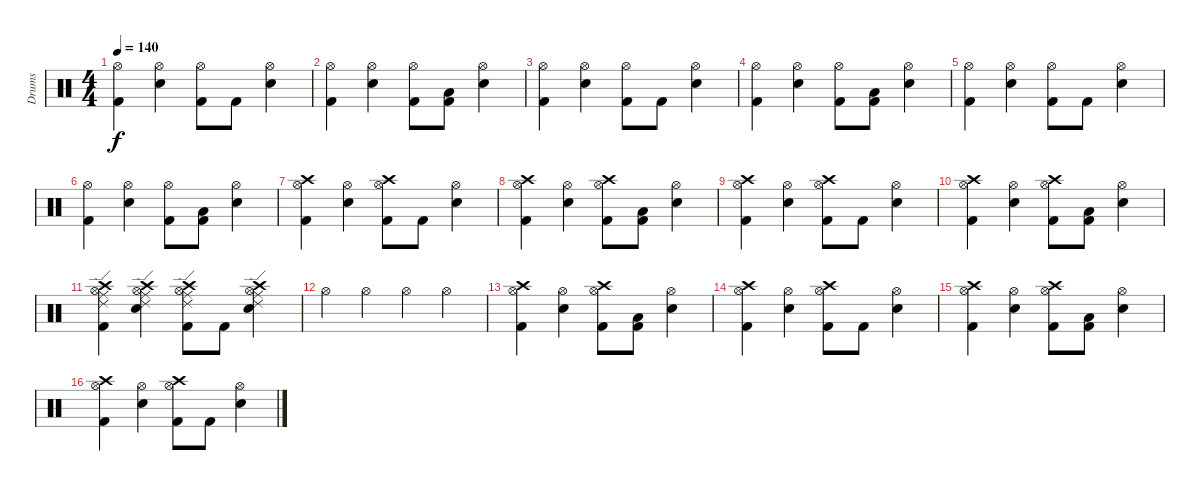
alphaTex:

\track ("Drums" "Drums") {instrument percussion}
\staff {score}
\articulation defaults
\ts (4 4)
\tempo 140
\clef neutral
\ks c
("Hi-Hat (open)" "Kick (hit) 2").4{dy f} ("Hi-Hat (open)" "Electric Snare (hit)").4 ("Hi-Hat (open)" "Kick (hit) 2").8 "Kick (hit) 2".8 ("Hi-Hat (open)" "Electric Snare (hit)").4 |
("Hi-Hat (open)" "Kick (hit) 2").4 ("Hi-Hat (open)" "Electric Snare (hit)").4 ("Hi-Hat (open)" "Kick (hit) 2").8 ("Low Tom (hit)" "Kick (hit) 2").8 ("Hi-Hat (open)" "Electric Snare (hit)").4 |
("Hi-Hat (open)" "Kick (hit) 2").4 ("Hi-Hat (open)" "Electric Snare (hit)").4 ("Hi-Hat (open)" "Kick (hit) 2").8 "Kick (hit) 2".8 ("Hi-Hat (open)" "Electric Snare (hit)").4 |
("Hi-Hat (open)" "Kick (hit) 2").4 ("Hi-Hat (open)" "Electric Snare (hit)").4 ("Hi-Hat (open)" "Kick (hit) 2").8 ("Low Tom (hit)" "Kick (hit) 2").8 ("Hi-Hat (open)" "Electric Snare (hit)").4 |
("Hi-Hat (open)" "Kick (hit) 2").4 ("Hi-Hat (open)" "Electric Snare (hit)").4 ("Hi-Hat (open)" "Kick (hit) 2").8 "Kick (hit) 2".8 ("Hi-Hat (open)" "Electric Snare (hit)").4 |
("Hi-Hat (open)" "Kick (hit) 2").4 ("Hi-Hat (open)" "Electric Snare (hit)").4 ("Hi-Hat (open)" "Kick (hit) 2").8 ("Low Tom (hit)" "Kick (hit) 2").8 ("Hi-Hat (open)" "Electric Snare (hit)").4 |
("Hi-Hat (open)" "Crash high (hit)" "Kick (hit) 2").4 ("Hi-Hat (open)" "Electric Snare (hit)").4 ("Hi-Hat (open)" "Crash high (hit)" "Kick (hit) 2").8 "Kick (hit) 2".8 ("Hi-Hat (open)" "Electric Snare (hit)").4 |
("Hi-Hat (open)" "Crash high (hit)" "Kick (hit) 2").4 ("Hi-Hat (open)" "Electric Snare (hit)").4 ("Hi-Hat (open)" "Crash high (hit)" "Kick (hit) 2").8 ("Low Tom (hit)" "Kick (hit) 2").8 ("Hi-Hat (open)" "Electric Snare (hit)").4 |
("Hi-Hat (open)" "Crash high (hit)" "Kick (hit) 2").4 ("Hi-Hat (open)" "Electric Snare (hit)").4 ("Hi-Hat (open)" "Crash high (hit)" "Kick (hit) 2").8 "Kick (hit) 2".8 ("Hi-Hat (open)" "Electric Snare (hit)").4 |
("Hi-Hat (open)" "Crash high (hit)" "Kick (hit) 2").4 ("Hi-Hat (open)" "Electric Snare (hit)").4 ("Hi-Hat (open)" "Crash high (hit)" "Kick (hit) 2").8 ("Low Tom (hit)" "Kick (hit) 2").8 ("Hi-Hat (open)" "Electric Snare (hit)").4 |
("Hi-Hat (open)" "Crash high (hit)" "Ride (middle)" "Ride (edge) 2" "Kick (hit) 2").4 ("Hi-Hat (open)" "Crash high (hit)" "Ride (middle)" "Ride (edge) 2" "Electric Snare (hit)").4 ("Hi-Hat (open)" "Crash high (hit)" "Ride (middle)" "Ride (edge) 2" "Kick (hit) 2").8 "Kick (hit) 2".8 ("Hi-Hat (open)" "Crash high (hit)" "Ride (middle)" "Ride (edge) 2" "Electric Snare (hit)").4 |
"Hi-Hat (open)".4 "Hi-Hat (open)".4 "Hi-Hat (open)".4 "Hi-Hat (open)".4 |
("Hi-Hat (open)" "Crash high (hit)" "Kick (hit) 2").4 ("Hi-Hat (open)" "Electric Snare (hit)").4 ("Hi-Hat (open)" "Crash high (hit)" "Kick (hit) 2").8 ("Low Tom (hit)" "Kick (hit) 2").8 ("Hi-Hat (open)" "Electric Snare (hit)").4 |
("Hi-Hat (open)" "Crash high (hit)" "Kick (hit) 2").4 ("Hi-Hat (open)" "Electric Snare (hit)").4 ("Hi-Hat (open)" "Crash high (hit)" "Kick (hit) 2").8 "Kick (hit) 2".8 ("Hi-Hat (open)" "Electric Snare (hit)").4 |
("Hi-Hat (open)" "Crash high (hit)" "Kick (hit) 2").4 ("Hi-Hat (open)" "Electric Snare (hit)").4 ("Hi-Hat (open)" "Crash high (hit)" "Kick (hit) 2").8 ("Low Tom (hit)" "Kick (hit) 2").8 ("Hi-Hat (open)" "Electric Snare (hit)").4 |
("Hi-Hat (open)" "Crash high (hit)" "Kick (hit) 2").4 ("Hi-Hat (open)" "Electric Snare (hit)").4 ("Hi-Hat (open)" "Crash high (hit)" "Kick (hit) 2").8 "Kick (hit) 2".8 ("Hi-Hat (open)" "Electric Snare (hit)").4
